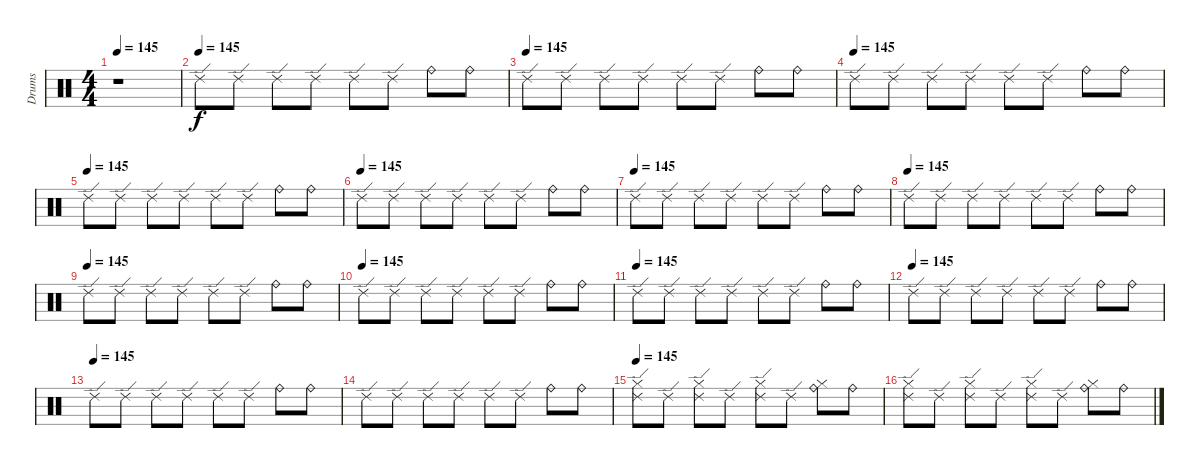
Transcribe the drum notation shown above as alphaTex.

\track ("Drums" "Drums") {instrument percussion}
\staff {score}
\articulation defaults
\ts (4 4)
\tempo 145
\clef neutral
\ks c
r.1{dy f} |
\tempo (145)
"Ride (edge) 2".8 "Ride (edge) 2".8 "Ride (edge) 2".8 "Ride (edge) 2".8 "Ride (edge) 2".8 "Ride (edge) 2".8 "Ride (bell)".8 "Ride (bell)".8 |
\tempo (145)
"Ride (edge) 2".8 "Ride (edge) 2".8 "Ride (edge) 2".8 "Ride (edge) 2".8 "Ride (edge) 2".8 "Ride (edge) 2".8 "Ride (bell)".8 "Ride (bell)".8 |
\tempo (145)
"Ride (edge) 2".8 "Ride (edge) 2".8 "Ride (edge) 2".8 "Ride (edge) 2".8 "Ride (edge) 2".8 "Ride (edge) 2".8 "Ride (bell)".8 "Ride (bell)".8 |
\tempo (145)
"Ride (edge) 2".8 "Ride (edge) 2".8 "Ride (edge) 2".8 "Ride (edge) 2".8 "Ride (edge) 2".8 "Ride (edge) 2".8 "Ride (bell)".8 "Ride (bell)".8 |
\tempo (145)
"Ride (edge) 2".8 "Ride (edge) 2".8 "Ride (edge) 2".8 "Ride (edge) 2".8 "Ride (edge) 2".8 "Ride (edge) 2".8 "Ride (bell)".8 "Ride (bell)".8 |
\tempo (145)
"Ride (edge) 2".8 "Ride (edge) 2".8 "Ride (edge) 2".8 "Ride (edge) 2".8 "Ride (edge) 2".8 "Ride (edge) 2".8 "Ride (bell)".8 "Ride (bell)".8 |
\tempo (145)
"Ride (edge) 2".8 "Ride (edge) 2".8 "Ride (edge) 2".8 "Ride (edge) 2".8 "Ride (edge) 2".8 "Ride (edge) 2".8 "Ride (bell)".8 "Ride (bell)".8 |
\tempo (145)
"Ride (edge) 2".8 "Ride (edge) 2".8 "Ride (edge) 2".8 "Ride (edge) 2".8 "Ride (edge) 2".8 "Ride (edge) 2".8 "Ride (bell)".8 "Ride (bell)".8 |
\tempo (145)
"Ride (edge) 2".8 "Ride (edge) 2".8 "Ride (edge) 2".8 "Ride (edge) 2".8 "Ride (edge) 2".8 "Ride (edge) 2".8 "Ride (bell)".8 "Ride (bell)".8 |
\tempo (145)
"Ride (edge) 2".8 "Ride (edge) 2".8 "Ride (edge) 2".8 "Ride (edge) 2".8 "Ride (edge) 2".8 "Ride (edge) 2".8 "Ride (bell)".8 "Ride (bell)".8 |
\tempo (145)
"Ride (edge) 2".8 "Ride (edge) 2".8 "Ride (edge) 2".8 "Ride (edge) 2".8 "Ride (edge) 2".8 "Ride (edge) 2".8 "Ride (bell)".8 "Ride (bell)".8 |
\tempo (145)
"Ride (edge) 2".8 "Ride (edge) 2".8 "Ride (edge) 2".8 "Ride (edge) 2".8 "Ride (edge) 2".8 "Ride (edge) 2".8 "Ride (bell)".8 "Ride (bell)".8 |
"Ride (edge) 2".8 "Ride (edge) 2".8 "Ride (edge) 2".8 "Ride (edge) 2".8 "Ride (edge) 2".8 "Ride (edge) 2".8 "Ride (bell)".8 "Ride (bell)".8 |
\tempo 145
("Hi-Hat (closed)" "Ride (edge) 2").8 "Ride (edge) 2".8 ("Hi-Hat (closed)" "Ride (edge) 2").8 "Ride (edge) 2".8 ("Hi-Hat (closed)" "Ride (edge) 2").8 "Ride (edge) 2".8 ("Hi-Hat (closed)" "Ride (bell)").8 "Ride (bell)".8 |
("Hi-Hat (closed)" "Ride (edge) 2").8 "Ride (edge) 2".8 ("Hi-Hat (closed)" "Ride (edge) 2").8 "Ride (edge) 2".8 ("Hi-Hat (closed)" "Ride (edge) 2").8 "Ride (edge) 2".8 ("Hi-Hat (closed)" "Ride (bell)").8 "Ride (bell)".8
